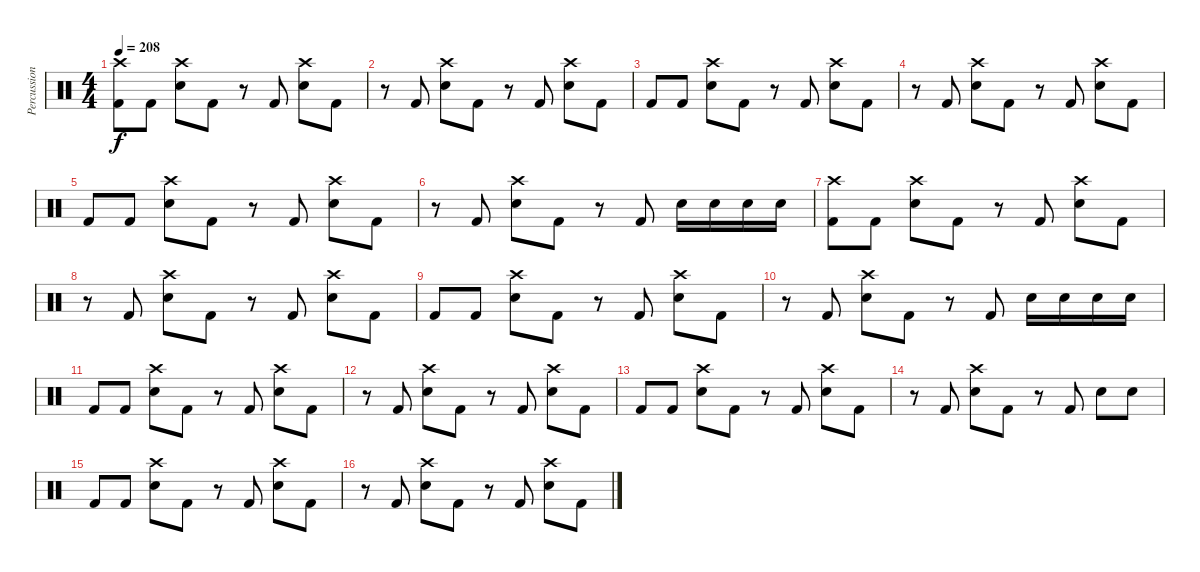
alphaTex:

\track ("Percussion" "Percussion") {instrument percussion}
\staff {score}
\articulation defaults
\ts (4 4)
\tempo 208
\clef neutral
\ks c
("Crash high (hit)" "Kick (hit) 2").8{dy f} "Kick (hit) 2".8 ("Crash high (hit)" "Electric Snare (hit)").8 "Kick (hit) 2".8 r.8 "Kick (hit) 2".8 ("Crash high (hit)" "Electric Snare (hit)").8 "Kick (hit) 2".8 |
r.8 "Kick (hit) 2".8 ("Crash high (hit)" "Electric Snare (hit)").8 "Kick (hit) 2".8 r.8 "Kick (hit) 2".8 ("Crash high (hit)" "Electric Snare (hit)").8 "Kick (hit) 2".8 |
"Kick (hit) 2".8 "Kick (hit) 2".8 ("Crash high (hit)" "Electric Snare (hit)").8 "Kick (hit) 2".8 r.8 "Kick (hit) 2".8 ("Crash high (hit)" "Electric Snare (hit)").8 "Kick (hit) 2".8 |
r.8 "Kick (hit) 2".8 ("Crash high (hit)" "Electric Snare (hit)").8 "Kick (hit) 2".8 r.8 "Kick (hit) 2".8 ("Crash high (hit)" "Electric Snare (hit)").8 "Kick (hit) 2".8 |
"Kick (hit) 2".8 "Kick (hit) 2".8 ("Crash high (hit)" "Electric Snare (hit)").8 "Kick (hit) 2".8 r.8 "Kick (hit) 2".8 ("Crash high (hit)" "Electric Snare (hit)").8 "Kick (hit) 2".8 |
r.8 "Kick (hit) 2".8 ("Crash high (hit)" "Electric Snare (hit)").8 "Kick (hit) 2".8 r.8 "Kick (hit) 2".8 "Electric Snare (hit)".16 "Electric Snare (hit)".16 "Electric Snare (hit)".16 "Electric Snare (hit)".16 |
("Crash high (hit)" "Kick (hit) 2").8 "Kick (hit) 2".8 ("Crash high (hit)" "Electric Snare (hit)").8 "Kick (hit) 2".8 r.8 "Kick (hit) 2".8 ("Crash high (hit)" "Electric Snare (hit)").8 "Kick (hit) 2".8 |
r.8 "Kick (hit) 2".8 ("Crash high (hit)" "Electric Snare (hit)").8 "Kick (hit) 2".8 r.8 "Kick (hit) 2".8 ("Crash high (hit)" "Electric Snare (hit)").8 "Kick (hit) 2".8 |
"Kick (hit) 2".8 "Kick (hit) 2".8 ("Crash high (hit)" "Electric Snare (hit)").8 "Kick (hit) 2".8 r.8 "Kick (hit) 2".8 ("Crash high (hit)" "Electric Snare (hit)").8 "Kick (hit) 2".8 |
r.8 "Kick (hit) 2".8 ("Crash high (hit)" "Electric Snare (hit)").8 "Kick (hit) 2".8 r.8 "Kick (hit) 2".8 "Electric Snare (hit)".16 "Electric Snare (hit)".16 "Electric Snare (hit)".16 "Electric Snare (hit)".16 |
"Kick (hit) 2".8 "Kick (hit) 2".8 ("Crash high (hit)" "Electric Snare (hit)").8 "Kick (hit) 2".8 r.8 "Kick (hit) 2".8 ("Crash high (hit)" "Electric Snare (hit)").8 "Kick (hit) 2".8 |
r.8 "Kick (hit) 2".8 ("Crash high (hit)" "Electric Snare (hit)").8 "Kick (hit) 2".8 r.8 "Kick (hit) 2".8 ("Crash high (hit)" "Electric Snare (hit)").8 "Kick (hit) 2".8 |
"Kick (hit) 2".8 "Kick (hit) 2".8 ("Crash high (hit)" "Electric Snare (hit)").8 "Kick (hit) 2".8 r.8 "Kick (hit) 2".8 ("Crash high (hit)" "Electric Snare (hit)").8 "Kick (hit) 2".8 |
r.8 "Kick (hit) 2".8 ("Crash high (hit)" "Electric Snare (hit)").8 "Kick (hit) 2".8 r.8 "Kick (hit) 2".8 "Electric Snare (hit)".8 "Electric Snare (hit)".8 |
"Kick (hit) 2".8 "Kick (hit) 2".8 ("Crash high (hit)" "Electric Snare (hit)").8 "Kick (hit) 2".8 r.8 "Kick (hit) 2".8 ("Crash high (hit)" "Electric Snare (hit)").8 "Kick (hit) 2".8 |
r.8 "Kick (hit) 2".8 ("Crash high (hit)" "Electric Snare (hit)").8 "Kick (hit) 2".8 r.8 "Kick (hit) 2".8 ("Crash high (hit)" "Electric Snare (hit)").8 "Kick (hit) 2".8
